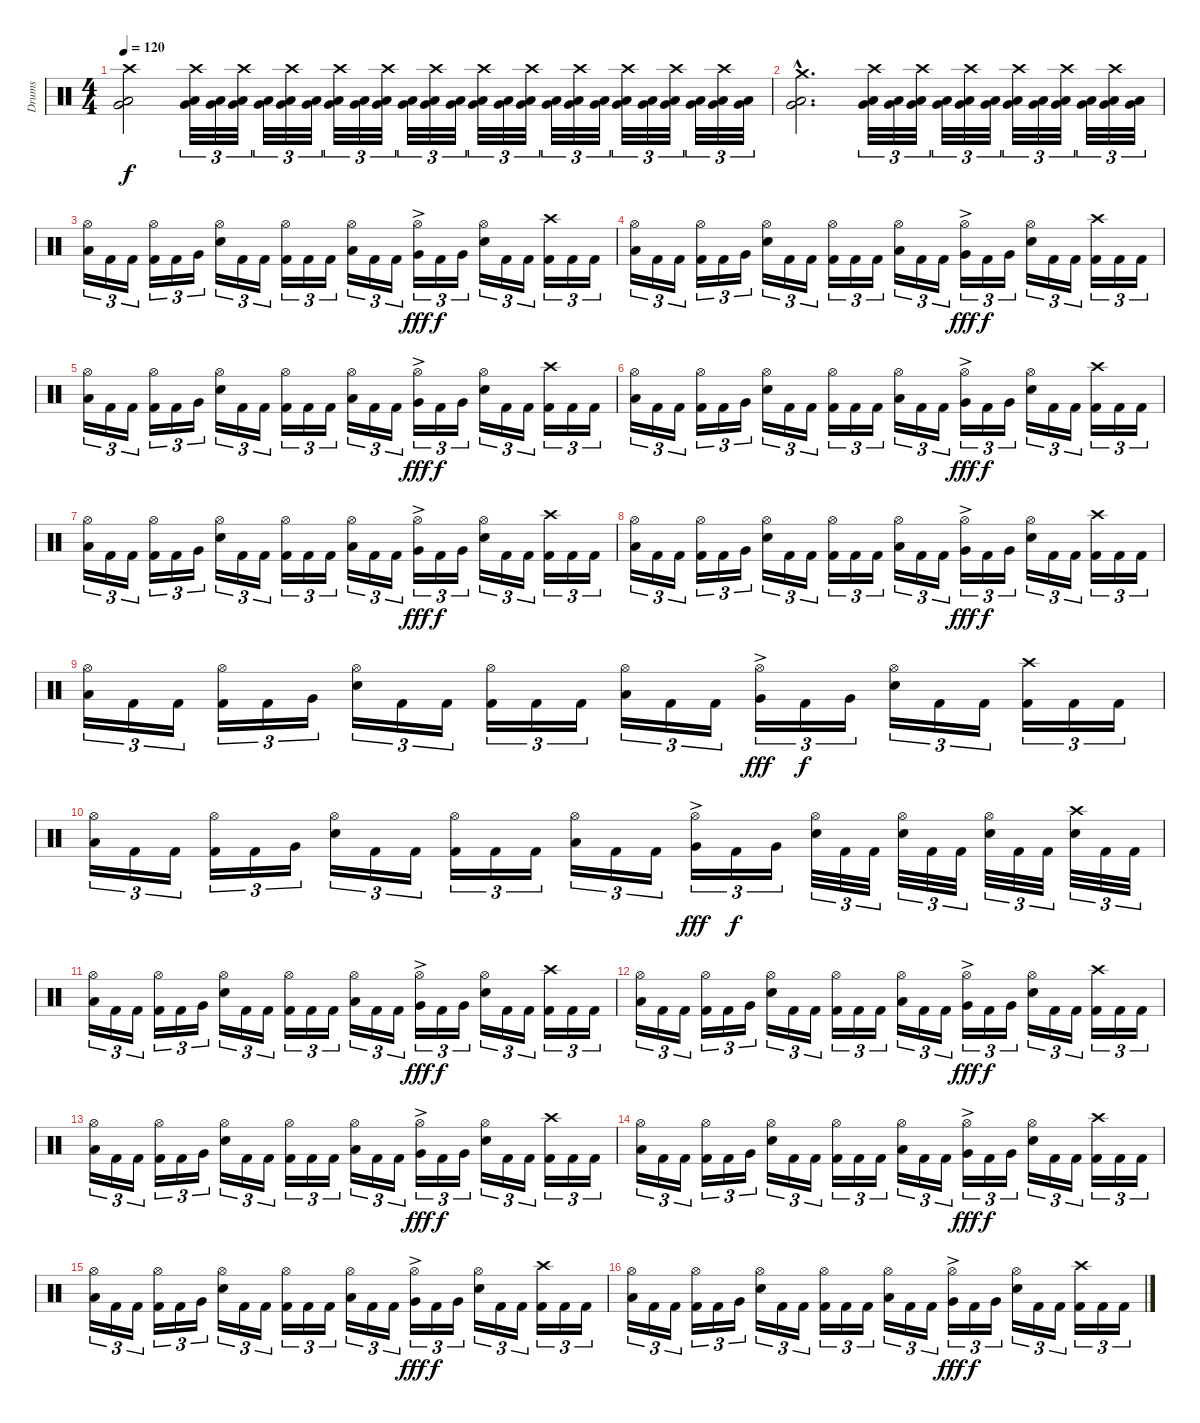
\track ("Drums" "Drums") {instrument percussion}
\staff {score}
\articulation defaults
\ts (4 4)
\tempo 120
\clef neutral
\ks c
("Crash high (hit)" "Low Floor Tom (hit)" "Very Low Tom (hit)").2{dy f} ("Crash high (hit)" "Low Floor Tom (hit)" "Very Low Tom (hit)").32{tu (3 2)} ("Low Floor Tom (hit)" "Very Low Tom (hit)").32{tu (3 2)} ("Crash high (hit)" "Low Floor Tom (hit)" "Very Low Tom (hit)").32{tu (3 2)} ("Low Floor Tom (hit)" "Very Low Tom (hit)").32{tu (3 2)} ("Crash high (hit)" "Low Floor Tom (hit)" "Very Low Tom (hit)").32{tu (3 2)} ("Low Floor Tom (hit)" "Very Low Tom (hit)").32{tu (3 2)} ("Crash high (hit)" "Low Floor Tom (hit)" "Very Low Tom (hit)").32{tu (3 2)} ("Low Floor Tom (hit)" "Very Low Tom (hit)").32{tu (3 2)} ("Crash high (hit)" "Low Floor Tom (hit)" "Very Low Tom (hit)").32{tu (3 2)} ("Low Floor Tom (hit)" "Very Low Tom (hit)").32{tu (3 2)} ("Crash high (hit)" "Low Floor Tom (hit)" "Very Low Tom (hit)").32{tu (3 2)} ("Low Floor Tom (hit)" "Very Low Tom (hit)").32{tu (3 2)} ("Crash high (hit)" "Low Floor Tom (hit)" "Very Low Tom (hit)").32{tu (3 2)} ("Low Floor Tom (hit)" "Very Low Tom (hit)").32{tu (3 2)} ("Crash high (hit)" "Low Floor Tom (hit)" "Very Low Tom (hit)").32{tu (3 2)} ("Low Floor Tom (hit)" "Very Low Tom (hit)").32{tu (3 2)} ("Crash high (hit)" "Low Floor Tom (hit)" "Very Low Tom (hit)").32{tu (3 2)} ("Low Floor Tom (hit)" "Very Low Tom (hit)").32{tu (3 2)} ("Crash high (hit)" "Low Floor Tom (hit)" "Very Low Tom (hit)").32{tu (3 2)} ("Low Floor Tom (hit)" "Very Low Tom (hit)").32{tu (3 2)} ("Crash high (hit)" "Low Floor Tom (hit)" "Very Low Tom (hit)").32{tu (3 2)} ("Low Floor Tom (hit)" "Very Low Tom (hit)").32{tu (3 2)} ("Crash high (hit)" "Low Floor Tom (hit)" "Very Low Tom (hit)").32{tu (3 2)} ("Low Floor Tom (hit)" "Very Low Tom (hit)").32{tu (3 2)} |
("Crash medium (hit)"{hac} "Low Floor Tom (hit)"{hac} "Very Low Tom (hit)"{hac}).2{d} ("Crash high (hit)" "Low Floor Tom (hit)" "Very Low Tom (hit)").32{tu (3 2)} ("Low Floor Tom (hit)" "Very Low Tom (hit)").32{tu (3 2)} ("Crash high (hit)" "Low Floor Tom (hit)" "Very Low Tom (hit)").32{tu (3 2)} ("Low Floor Tom (hit)" "Very Low Tom (hit)").32{tu (3 2)} ("Crash high (hit)" "Low Floor Tom (hit)" "Very Low Tom (hit)").32{tu (3 2)} ("Low Floor Tom (hit)" "Very Low Tom (hit)").32{tu (3 2)} ("Crash high (hit)" "Low Floor Tom (hit)" "Very Low Tom (hit)").32{tu (3 2)} ("Low Floor Tom (hit)" "Very Low Tom (hit)").32{tu (3 2)} ("Crash high (hit)" "Low Floor Tom (hit)" "Very Low Tom (hit)").32{tu (3 2)} ("Low Floor Tom (hit)" "Very Low Tom (hit)").32{tu (3 2)} ("Crash high (hit)" "Low Floor Tom (hit)" "Very Low Tom (hit)").32{tu (3 2)} ("Low Floor Tom (hit)" "Very Low Tom (hit)").32{tu (3 2)} |
("Hi-Hat (open)" "Low Tom (hit)").16{tu (3 2)} "Kick (hit) 2".16{tu (3 2)} "Kick (hit) 2".16{tu (3 2)} ("Hi-Hat (open)" "Kick (hit) 2").16{tu (3 2)} "Kick (hit) 2".16{tu (3 2)} "Very Low Tom (hit)".16{tu (3 2)} ("Hi-Hat (open)" "Electric Snare (hit)").16{tu (3 2)} "Kick (hit) 2".16{tu (3 2)} "Kick (hit) 2".16{tu (3 2)} ("Hi-Hat (open)" "Kick (hit) 2").16{tu (3 2)} "Kick (hit) 2".16{tu (3 2)} "Kick (hit) 2".16{tu (3 2)} ("Hi-Hat (open)" "Low Tom (hit)").16{tu (3 2)} "Kick (hit) 2".16{tu (3 2)} "Kick (hit) 2".16{tu (3 2)} ("Hi-Hat (open)" "Very Low Tom (hit)"{ac}).16{tu (3 2) dy fff} "Kick (hit) 2".16{tu (3 2) dy f} "Very Low Tom (hit)".16{tu (3 2)} ("Hi-Hat (open)" "Electric Snare (hit)").16{tu (3 2)} "Kick (hit) 2".16{tu (3 2)} "Kick (hit) 2".16{tu (3 2)} ("Crash high (hit)" "Kick (hit) 2").16{tu (3 2)} "Kick (hit) 2".16{tu (3 2)} "Kick (hit) 2".16{tu (3 2)} |
("Hi-Hat (open)" "Low Tom (hit)").16{tu (3 2)} "Kick (hit) 2".16{tu (3 2)} "Kick (hit) 2".16{tu (3 2)} ("Hi-Hat (open)" "Kick (hit) 2").16{tu (3 2)} "Kick (hit) 2".16{tu (3 2)} "Very Low Tom (hit)".16{tu (3 2)} ("Hi-Hat (open)" "Electric Snare (hit)").16{tu (3 2)} "Kick (hit) 2".16{tu (3 2)} "Kick (hit) 2".16{tu (3 2)} ("Hi-Hat (open)" "Kick (hit) 2").16{tu (3 2)} "Kick (hit) 2".16{tu (3 2)} "Kick (hit) 2".16{tu (3 2)} ("Hi-Hat (open)" "Low Tom (hit)").16{tu (3 2)} "Kick (hit) 2".16{tu (3 2)} "Kick (hit) 2".16{tu (3 2)} ("Hi-Hat (open)" "Very Low Tom (hit)"{ac}).16{tu (3 2) dy fff} "Kick (hit) 2".16{tu (3 2) dy f} "Very Low Tom (hit)".16{tu (3 2)} ("Hi-Hat (open)" "Electric Snare (hit)").16{tu (3 2)} "Kick (hit) 2".16{tu (3 2)} "Kick (hit) 2".16{tu (3 2)} ("Crash high (hit)" "Kick (hit) 2").16{tu (3 2)} "Kick (hit) 2".16{tu (3 2)} "Kick (hit) 2".16{tu (3 2)} |
("Hi-Hat (open)" "Low Tom (hit)").16{tu (3 2)} "Kick (hit) 2".16{tu (3 2)} "Kick (hit) 2".16{tu (3 2)} ("Hi-Hat (open)" "Kick (hit) 2").16{tu (3 2)} "Kick (hit) 2".16{tu (3 2)} "Very Low Tom (hit)".16{tu (3 2)} ("Hi-Hat (open)" "Electric Snare (hit)").16{tu (3 2)} "Kick (hit) 2".16{tu (3 2)} "Kick (hit) 2".16{tu (3 2)} ("Hi-Hat (open)" "Kick (hit) 2").16{tu (3 2)} "Kick (hit) 2".16{tu (3 2)} "Kick (hit) 2".16{tu (3 2)} ("Hi-Hat (open)" "Low Tom (hit)").16{tu (3 2)} "Kick (hit) 2".16{tu (3 2)} "Kick (hit) 2".16{tu (3 2)} ("Hi-Hat (open)" "Very Low Tom (hit)"{ac}).16{tu (3 2) dy fff} "Kick (hit) 2".16{tu (3 2) dy f} "Very Low Tom (hit)".16{tu (3 2)} ("Hi-Hat (open)" "Electric Snare (hit)").16{tu (3 2)} "Kick (hit) 2".16{tu (3 2)} "Kick (hit) 2".16{tu (3 2)} ("Crash high (hit)" "Kick (hit) 2").16{tu (3 2)} "Kick (hit) 2".16{tu (3 2)} "Kick (hit) 2".16{tu (3 2)} |
("Hi-Hat (open)" "Low Tom (hit)").16{tu (3 2)} "Kick (hit) 2".16{tu (3 2)} "Kick (hit) 2".16{tu (3 2)} ("Hi-Hat (open)" "Kick (hit) 2").16{tu (3 2)} "Kick (hit) 2".16{tu (3 2)} "Very Low Tom (hit)".16{tu (3 2)} ("Hi-Hat (open)" "Electric Snare (hit)").16{tu (3 2)} "Kick (hit) 2".16{tu (3 2)} "Kick (hit) 2".16{tu (3 2)} ("Hi-Hat (open)" "Kick (hit) 2").16{tu (3 2)} "Kick (hit) 2".16{tu (3 2)} "Kick (hit) 2".16{tu (3 2)} ("Hi-Hat (open)" "Low Tom (hit)").16{tu (3 2)} "Kick (hit) 2".16{tu (3 2)} "Kick (hit) 2".16{tu (3 2)} ("Hi-Hat (open)" "Very Low Tom (hit)"{ac}).16{tu (3 2) dy fff} "Kick (hit) 2".16{tu (3 2) dy f} "Very Low Tom (hit)".16{tu (3 2)} ("Hi-Hat (open)" "Electric Snare (hit)").16{tu (3 2)} "Kick (hit) 2".16{tu (3 2)} "Kick (hit) 2".16{tu (3 2)} ("Crash high (hit)" "Kick (hit) 2").16{tu (3 2)} "Kick (hit) 2".16{tu (3 2)} "Kick (hit) 2".16{tu (3 2)} |
("Hi-Hat (open)" "Low Tom (hit)").16{tu (3 2)} "Kick (hit) 2".16{tu (3 2)} "Kick (hit) 2".16{tu (3 2)} ("Hi-Hat (open)" "Kick (hit) 2").16{tu (3 2)} "Kick (hit) 2".16{tu (3 2)} "Very Low Tom (hit)".16{tu (3 2)} ("Hi-Hat (open)" "Electric Snare (hit)").16{tu (3 2)} "Kick (hit) 2".16{tu (3 2)} "Kick (hit) 2".16{tu (3 2)} ("Hi-Hat (open)" "Kick (hit) 2").16{tu (3 2)} "Kick (hit) 2".16{tu (3 2)} "Kick (hit) 2".16{tu (3 2)} ("Hi-Hat (open)" "Low Tom (hit)").16{tu (3 2)} "Kick (hit) 2".16{tu (3 2)} "Kick (hit) 2".16{tu (3 2)} ("Hi-Hat (open)" "Very Low Tom (hit)"{ac}).16{tu (3 2) dy fff} "Kick (hit) 2".16{tu (3 2) dy f} "Very Low Tom (hit)".16{tu (3 2)} ("Hi-Hat (open)" "Electric Snare (hit)").16{tu (3 2)} "Kick (hit) 2".16{tu (3 2)} "Kick (hit) 2".16{tu (3 2)} ("Crash high (hit)" "Kick (hit) 2").16{tu (3 2)} "Kick (hit) 2".16{tu (3 2)} "Kick (hit) 2".16{tu (3 2)} |
("Hi-Hat (open)" "Low Tom (hit)").16{tu (3 2)} "Kick (hit) 2".16{tu (3 2)} "Kick (hit) 2".16{tu (3 2)} ("Hi-Hat (open)" "Kick (hit) 2").16{tu (3 2)} "Kick (hit) 2".16{tu (3 2)} "Very Low Tom (hit)".16{tu (3 2)} ("Hi-Hat (open)" "Electric Snare (hit)").16{tu (3 2)} "Kick (hit) 2".16{tu (3 2)} "Kick (hit) 2".16{tu (3 2)} ("Hi-Hat (open)" "Kick (hit) 2").16{tu (3 2)} "Kick (hit) 2".16{tu (3 2)} "Kick (hit) 2".16{tu (3 2)} ("Hi-Hat (open)" "Low Tom (hit)").16{tu (3 2)} "Kick (hit) 2".16{tu (3 2)} "Kick (hit) 2".16{tu (3 2)} ("Hi-Hat (open)" "Very Low Tom (hit)"{ac}).16{tu (3 2) dy fff} "Kick (hit) 2".16{tu (3 2) dy f} "Very Low Tom (hit)".16{tu (3 2)} ("Hi-Hat (open)" "Electric Snare (hit)").16{tu (3 2)} "Kick (hit) 2".16{tu (3 2)} "Kick (hit) 2".16{tu (3 2)} ("Crash high (hit)" "Kick (hit) 2").16{tu (3 2)} "Kick (hit) 2".16{tu (3 2)} "Kick (hit) 2".16{tu (3 2)} |
("Hi-Hat (open)" "Low Tom (hit)").16{tu (3 2)} "Kick (hit) 2".16{tu (3 2)} "Kick (hit) 2".16{tu (3 2)} ("Hi-Hat (open)" "Kick (hit) 2").16{tu (3 2)} "Kick (hit) 2".16{tu (3 2)} "Very Low Tom (hit)".16{tu (3 2)} ("Hi-Hat (open)" "Electric Snare (hit)").16{tu (3 2)} "Kick (hit) 2".16{tu (3 2)} "Kick (hit) 2".16{tu (3 2)} ("Hi-Hat (open)" "Kick (hit) 2").16{tu (3 2)} "Kick (hit) 2".16{tu (3 2)} "Kick (hit) 2".16{tu (3 2)} ("Hi-Hat (open)" "Low Tom (hit)").16{tu (3 2)} "Kick (hit) 2".16{tu (3 2)} "Kick (hit) 2".16{tu (3 2)} ("Hi-Hat (open)" "Very Low Tom (hit)"{ac}).16{tu (3 2) dy fff} "Kick (hit) 2".16{tu (3 2) dy f} "Very Low Tom (hit)".16{tu (3 2)} ("Hi-Hat (open)" "Electric Snare (hit)").16{tu (3 2)} "Kick (hit) 2".16{tu (3 2)} "Kick (hit) 2".16{tu (3 2)} ("Crash high (hit)" "Kick (hit) 2").16{tu (3 2)} "Kick (hit) 2".16{tu (3 2)} "Kick (hit) 2".16{tu (3 2)} |
("Hi-Hat (open)" "Low Tom (hit)").16{tu (3 2)} "Kick (hit) 2".16{tu (3 2)} "Kick (hit) 2".16{tu (3 2)} ("Hi-Hat (open)" "Kick (hit) 2").16{tu (3 2)} "Kick (hit) 2".16{tu (3 2)} "Very Low Tom (hit)".16{tu (3 2)} ("Hi-Hat (open)" "Electric Snare (hit)").16{tu (3 2)} "Kick (hit) 2".16{tu (3 2)} "Kick (hit) 2".16{tu (3 2)} ("Hi-Hat (open)" "Kick (hit) 2").16{tu (3 2)} "Kick (hit) 2".16{tu (3 2)} "Kick (hit) 2".16{tu (3 2)} ("Hi-Hat (open)" "Low Tom (hit)").16{tu (3 2)} "Kick (hit) 2".16{tu (3 2)} "Kick (hit) 2".16{tu (3 2)} ("Hi-Hat (open)" "Very Low Tom (hit)"{ac}).16{tu (3 2) dy fff} "Kick (hit) 2".16{tu (3 2) dy f} "Very Low Tom (hit)".16{tu (3 2)} ("Hi-Hat (open)" "Electric Snare (hit)").32{tu (3 2)} "Kick (hit) 2".32{tu (3 2)} "Kick (hit) 2".32{tu (3 2)} ("Hi-Hat (open)" "Electric Snare (hit)").32{tu (3 2)} "Kick (hit) 2".32{tu (3 2)} "Kick (hit) 2".32{tu (3 2)} ("Hi-Hat (open)" "Electric Snare (hit)").32{tu (3 2)} "Kick (hit) 2".32{tu (3 2)} "Kick (hit) 2".32{tu (3 2)} ("Crash high (hit)" "Electric Snare (hit)").32{tu (3 2)} "Kick (hit) 2".32{tu (3 2)} "Kick (hit) 2".32{tu (3 2)} |
("Hi-Hat (open)" "Low Tom (hit)").16{tu (3 2)} "Kick (hit) 2".16{tu (3 2)} "Kick (hit) 2".16{tu (3 2)} ("Hi-Hat (open)" "Kick (hit) 2").16{tu (3 2)} "Kick (hit) 2".16{tu (3 2)} "Very Low Tom (hit)".16{tu (3 2)} ("Hi-Hat (open)" "Electric Snare (hit)").16{tu (3 2)} "Kick (hit) 2".16{tu (3 2)} "Kick (hit) 2".16{tu (3 2)} ("Hi-Hat (open)" "Kick (hit) 2").16{tu (3 2)} "Kick (hit) 2".16{tu (3 2)} "Kick (hit) 2".16{tu (3 2)} ("Hi-Hat (open)" "Low Tom (hit)").16{tu (3 2)} "Kick (hit) 2".16{tu (3 2)} "Kick (hit) 2".16{tu (3 2)} ("Hi-Hat (open)" "Very Low Tom (hit)"{ac}).16{tu (3 2) dy fff} "Kick (hit) 2".16{tu (3 2) dy f} "Very Low Tom (hit)".16{tu (3 2)} ("Hi-Hat (open)" "Electric Snare (hit)").16{tu (3 2)} "Kick (hit) 2".16{tu (3 2)} "Kick (hit) 2".16{tu (3 2)} ("Crash high (hit)" "Kick (hit) 2").16{tu (3 2)} "Kick (hit) 2".16{tu (3 2)} "Kick (hit) 2".16{tu (3 2)} |
("Hi-Hat (open)" "Low Tom (hit)").16{tu (3 2)} "Kick (hit) 2".16{tu (3 2)} "Kick (hit) 2".16{tu (3 2)} ("Hi-Hat (open)" "Kick (hit) 2").16{tu (3 2)} "Kick (hit) 2".16{tu (3 2)} "Very Low Tom (hit)".16{tu (3 2)} ("Hi-Hat (open)" "Electric Snare (hit)").16{tu (3 2)} "Kick (hit) 2".16{tu (3 2)} "Kick (hit) 2".16{tu (3 2)} ("Hi-Hat (open)" "Kick (hit) 2").16{tu (3 2)} "Kick (hit) 2".16{tu (3 2)} "Kick (hit) 2".16{tu (3 2)} ("Hi-Hat (open)" "Low Tom (hit)").16{tu (3 2)} "Kick (hit) 2".16{tu (3 2)} "Kick (hit) 2".16{tu (3 2)} ("Hi-Hat (open)" "Very Low Tom (hit)"{ac}).16{tu (3 2) dy fff} "Kick (hit) 2".16{tu (3 2) dy f} "Very Low Tom (hit)".16{tu (3 2)} ("Hi-Hat (open)" "Electric Snare (hit)").16{tu (3 2)} "Kick (hit) 2".16{tu (3 2)} "Kick (hit) 2".16{tu (3 2)} ("Crash high (hit)" "Kick (hit) 2").16{tu (3 2)} "Kick (hit) 2".16{tu (3 2)} "Kick (hit) 2".16{tu (3 2)} |
("Hi-Hat (open)" "Low Tom (hit)").16{tu (3 2)} "Kick (hit) 2".16{tu (3 2)} "Kick (hit) 2".16{tu (3 2)} ("Hi-Hat (open)" "Kick (hit) 2").16{tu (3 2)} "Kick (hit) 2".16{tu (3 2)} "Very Low Tom (hit)".16{tu (3 2)} ("Hi-Hat (open)" "Electric Snare (hit)").16{tu (3 2)} "Kick (hit) 2".16{tu (3 2)} "Kick (hit) 2".16{tu (3 2)} ("Hi-Hat (open)" "Kick (hit) 2").16{tu (3 2)} "Kick (hit) 2".16{tu (3 2)} "Kick (hit) 2".16{tu (3 2)} ("Hi-Hat (open)" "Low Tom (hit)").16{tu (3 2)} "Kick (hit) 2".16{tu (3 2)} "Kick (hit) 2".16{tu (3 2)} ("Hi-Hat (open)" "Very Low Tom (hit)"{ac}).16{tu (3 2) dy fff} "Kick (hit) 2".16{tu (3 2) dy f} "Very Low Tom (hit)".16{tu (3 2)} ("Hi-Hat (open)" "Electric Snare (hit)").16{tu (3 2)} "Kick (hit) 2".16{tu (3 2)} "Kick (hit) 2".16{tu (3 2)} ("Crash high (hit)" "Kick (hit) 2").16{tu (3 2)} "Kick (hit) 2".16{tu (3 2)} "Kick (hit) 2".16{tu (3 2)} |
("Hi-Hat (open)" "Low Tom (hit)").16{tu (3 2)} "Kick (hit) 2".16{tu (3 2)} "Kick (hit) 2".16{tu (3 2)} ("Hi-Hat (open)" "Kick (hit) 2").16{tu (3 2)} "Kick (hit) 2".16{tu (3 2)} "Very Low Tom (hit)".16{tu (3 2)} ("Hi-Hat (open)" "Electric Snare (hit)").16{tu (3 2)} "Kick (hit) 2".16{tu (3 2)} "Kick (hit) 2".16{tu (3 2)} ("Hi-Hat (open)" "Kick (hit) 2").16{tu (3 2)} "Kick (hit) 2".16{tu (3 2)} "Kick (hit) 2".16{tu (3 2)} ("Hi-Hat (open)" "Low Tom (hit)").16{tu (3 2)} "Kick (hit) 2".16{tu (3 2)} "Kick (hit) 2".16{tu (3 2)} ("Hi-Hat (open)" "Very Low Tom (hit)"{ac}).16{tu (3 2) dy fff} "Kick (hit) 2".16{tu (3 2) dy f} "Very Low Tom (hit)".16{tu (3 2)} ("Hi-Hat (open)" "Electric Snare (hit)").16{tu (3 2)} "Kick (hit) 2".16{tu (3 2)} "Kick (hit) 2".16{tu (3 2)} ("Crash high (hit)" "Kick (hit) 2").16{tu (3 2)} "Kick (hit) 2".16{tu (3 2)} "Kick (hit) 2".16{tu (3 2)} |
("Hi-Hat (open)" "Low Tom (hit)").16{tu (3 2)} "Kick (hit) 2".16{tu (3 2)} "Kick (hit) 2".16{tu (3 2)} ("Hi-Hat (open)" "Kick (hit) 2").16{tu (3 2)} "Kick (hit) 2".16{tu (3 2)} "Very Low Tom (hit)".16{tu (3 2)} ("Hi-Hat (open)" "Electric Snare (hit)").16{tu (3 2)} "Kick (hit) 2".16{tu (3 2)} "Kick (hit) 2".16{tu (3 2)} ("Hi-Hat (open)" "Kick (hit) 2").16{tu (3 2)} "Kick (hit) 2".16{tu (3 2)} "Kick (hit) 2".16{tu (3 2)} ("Hi-Hat (open)" "Low Tom (hit)").16{tu (3 2)} "Kick (hit) 2".16{tu (3 2)} "Kick (hit) 2".16{tu (3 2)} ("Hi-Hat (open)" "Very Low Tom (hit)"{ac}).16{tu (3 2) dy fff} "Kick (hit) 2".16{tu (3 2) dy f} "Very Low Tom (hit)".16{tu (3 2)} ("Hi-Hat (open)" "Electric Snare (hit)").16{tu (3 2)} "Kick (hit) 2".16{tu (3 2)} "Kick (hit) 2".16{tu (3 2)} ("Crash high (hit)" "Kick (hit) 2").16{tu (3 2)} "Kick (hit) 2".16{tu (3 2)} "Kick (hit) 2".16{tu (3 2)} |
("Hi-Hat (open)" "Low Tom (hit)").16{tu (3 2)} "Kick (hit) 2".16{tu (3 2)} "Kick (hit) 2".16{tu (3 2)} ("Hi-Hat (open)" "Kick (hit) 2").16{tu (3 2)} "Kick (hit) 2".16{tu (3 2)} "Very Low Tom (hit)".16{tu (3 2)} ("Hi-Hat (open)" "Electric Snare (hit)").16{tu (3 2)} "Kick (hit) 2".16{tu (3 2)} "Kick (hit) 2".16{tu (3 2)} ("Hi-Hat (open)" "Kick (hit) 2").16{tu (3 2)} "Kick (hit) 2".16{tu (3 2)} "Kick (hit) 2".16{tu (3 2)} ("Hi-Hat (open)" "Low Tom (hit)").16{tu (3 2)} "Kick (hit) 2".16{tu (3 2)} "Kick (hit) 2".16{tu (3 2)} ("Hi-Hat (open)" "Very Low Tom (hit)"{ac}).16{tu (3 2) dy fff} "Kick (hit) 2".16{tu (3 2) dy f} "Very Low Tom (hit)".16{tu (3 2)} ("Hi-Hat (open)" "Electric Snare (hit)").16{tu (3 2)} "Kick (hit) 2".16{tu (3 2)} "Kick (hit) 2".16{tu (3 2)} ("Crash high (hit)" "Kick (hit) 2").16{tu (3 2)} "Kick (hit) 2".16{tu (3 2)} "Kick (hit) 2".16{tu (3 2)}
